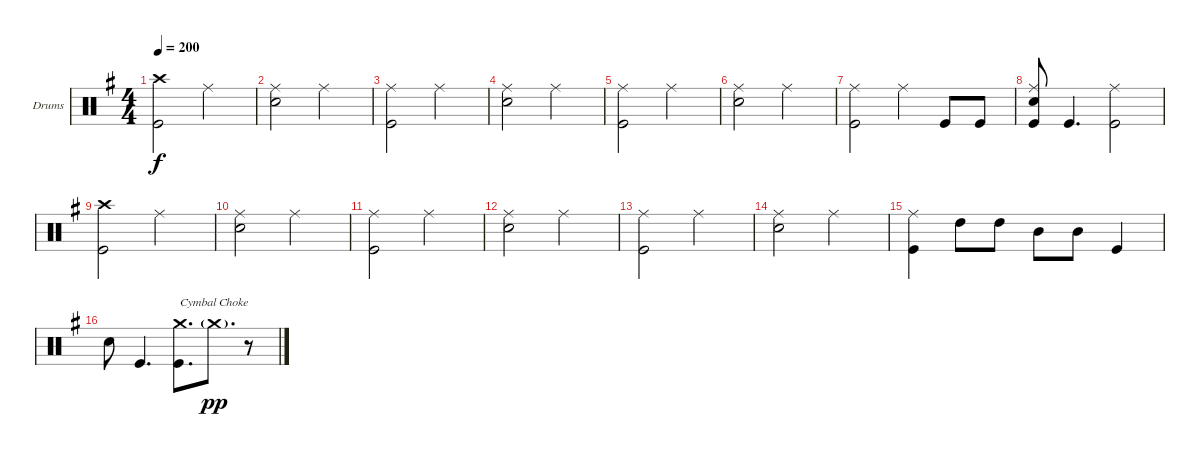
\bracketExtendMode groupsimilarinstruments
\firstSystemTrackNameOrientation horizontal
\otherSystemsTrackNameOrientation horizontal
\track ("Drumkit" "Drums") {instrument percussion}
\staff {score}
\articulation defaults
\ts (4 4)
\tempo 200
\clef neutral
\ks g
("Crash high (hit)" "Kick (hit)").2{dy f} "Ride (middle)".2 |
("Ride (middle)" "Snare (hit) 2").2 "Ride (middle)".2 |
("Ride (middle)" "Kick (hit)").2 "Ride (middle)".2 |
("Ride (middle)" "Snare (hit) 2").2 "Ride (middle)".2 |
("Ride (middle)" "Kick (hit)").2 "Ride (middle)".2 |
("Ride (middle)" "Snare (hit) 2").2 "Ride (middle)".2 |
("Ride (middle)" "Kick (hit)").2 "Ride (middle)".4 "Kick (hit)".8 "Kick (hit)".8 |
("Ride (middle)" "Snare (hit) 2" "Kick (hit)").8 "Kick (hit)".4{d} ("Ride (middle)" "Kick (hit)").2 |
("Crash high (hit)" "Kick (hit)").2 "Ride (middle)".2 |
("Ride (middle)" "Snare (hit) 2").2 "Ride (middle)".2 |
("Ride (middle)" "Kick (hit)").2 "Ride (middle)".2 |
("Ride (middle)" "Snare (hit) 2").2 "Ride (middle)".2 |
("Ride (middle)" "Kick (hit)").2 "Ride (middle)".2 |
("Ride (middle)" "Snare (hit) 2").2 "Ride (middle)".2 |
("Ride (middle)" "Kick (hit)").4 "High Tom (hit)".8 "High Tom (hit)".8 "Mid Tom (hit)".8 "Mid Tom (hit)".8 "Kick (hit)".4 |
"Snare (hit) 2".8 "Kick (hit)".4{d} ("Crash medium (hit)" "Kick (hit)").8{d txt "Cymbal Choke"} "Crash medium (hit)"{g}.8{d dy pp} r.8
